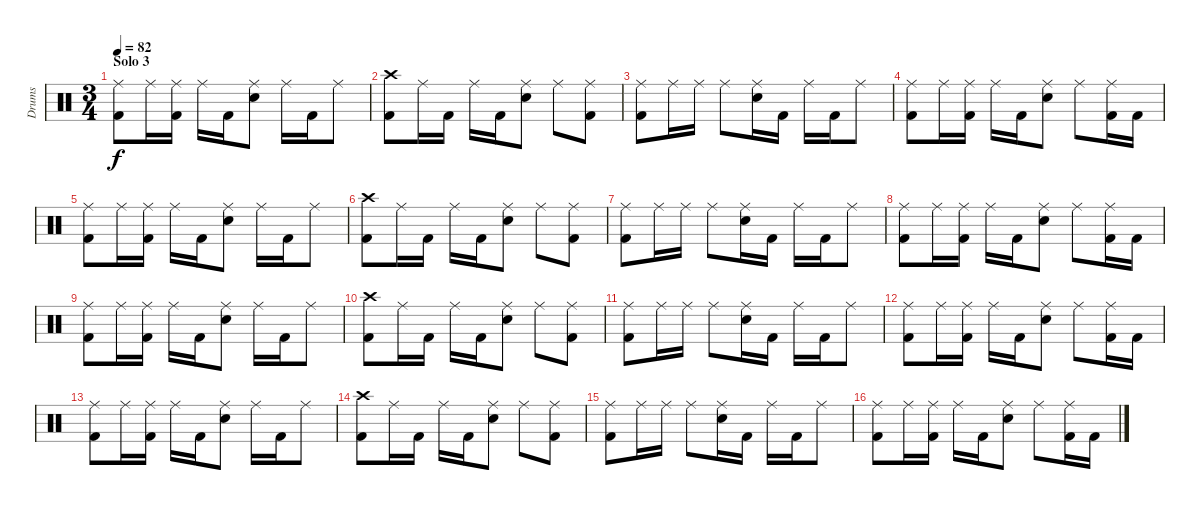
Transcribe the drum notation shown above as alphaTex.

\track ("Drums" "Drums") {instrument percussion}
\staff {score}
\articulation defaults
\ts (3 4)
\section ("" "Solo 3")
\tempo 82
\clef neutral
\ks c
("Ride (middle)" "Kick (hit) 2").8{dy f} "Ride (middle)".16 ("Ride (middle)" "Kick (hit) 2").16 "Ride (middle)".16 "Kick (hit) 2".16 ("Ride (middle)" "Electric Snare (hit)").8 "Ride (middle)".16 "Kick (hit) 2".16 "Ride (middle)".8 |
("Crash high (hit)" "Kick (hit) 2").8 "Ride (middle)".16 "Kick (hit) 2".16 "Ride (middle)".16 "Kick (hit) 2".16 ("Ride (middle)" "Electric Snare (hit)").8 "Ride (middle)".8 ("Ride (middle)" "Kick (hit) 2").8 |
("Ride (middle)" "Kick (hit) 2").8 "Ride (middle)".16 "Ride (middle)".16 "Ride (middle)".8 ("Ride (middle)" "Electric Snare (hit)").16 "Kick (hit) 2".16 "Ride (middle)".16 "Kick (hit) 2".16 "Ride (middle)".8 |
("Ride (middle)" "Kick (hit) 2").8 "Ride (middle)".16 ("Ride (middle)" "Kick (hit) 2").16 "Ride (middle)".16 "Kick (hit) 2".16 ("Ride (middle)" "Electric Snare (hit)").8 "Ride (middle)".8 ("Ride (middle)" "Kick (hit) 2").16 "Kick (hit) 2".16 |
("Ride (middle)" "Kick (hit) 2").8 "Ride (middle)".16 ("Ride (middle)" "Kick (hit) 2").16 "Ride (middle)".16 "Kick (hit) 2".16 ("Ride (middle)" "Electric Snare (hit)").8 "Ride (middle)".16 "Kick (hit) 2".16 "Ride (middle)".8 |
("Crash high (hit)" "Kick (hit) 2").8 "Ride (middle)".16 "Kick (hit) 2".16 "Ride (middle)".16 "Kick (hit) 2".16 ("Ride (middle)" "Electric Snare (hit)").8 "Ride (middle)".8 ("Ride (middle)" "Kick (hit) 2").8 |
("Ride (middle)" "Kick (hit) 2").8 "Ride (middle)".16 "Ride (middle)".16 "Ride (middle)".8 ("Ride (middle)" "Electric Snare (hit)").16 "Kick (hit) 2".16 "Ride (middle)".16 "Kick (hit) 2".16 "Ride (middle)".8 |
("Ride (middle)" "Kick (hit) 2").8 "Ride (middle)".16 ("Ride (middle)" "Kick (hit) 2").16 "Ride (middle)".16 "Kick (hit) 2".16 ("Ride (middle)" "Electric Snare (hit)").8 "Ride (middle)".8 ("Ride (middle)" "Kick (hit) 2").16 "Kick (hit) 2".16 |
("Ride (middle)" "Kick (hit) 2").8 "Ride (middle)".16 ("Ride (middle)" "Kick (hit) 2").16 "Ride (middle)".16 "Kick (hit) 2".16 ("Ride (middle)" "Electric Snare (hit)").8 "Ride (middle)".16 "Kick (hit) 2".16 "Ride (middle)".8 |
("Crash high (hit)" "Kick (hit) 2").8 "Ride (middle)".16 "Kick (hit) 2".16 "Ride (middle)".16 "Kick (hit) 2".16 ("Ride (middle)" "Electric Snare (hit)").8 "Ride (middle)".8 ("Ride (middle)" "Kick (hit) 2").8 |
("Ride (middle)" "Kick (hit) 2").8 "Ride (middle)".16 "Ride (middle)".16 "Ride (middle)".8 ("Ride (middle)" "Electric Snare (hit)").16 "Kick (hit) 2".16 "Ride (middle)".16 "Kick (hit) 2".16 "Ride (middle)".8 |
("Ride (middle)" "Kick (hit) 2").8 "Ride (middle)".16 ("Ride (middle)" "Kick (hit) 2").16 "Ride (middle)".16 "Kick (hit) 2".16 ("Ride (middle)" "Electric Snare (hit)").8 "Ride (middle)".8 ("Ride (middle)" "Kick (hit) 2").16 "Kick (hit) 2".16 |
("Ride (middle)" "Kick (hit) 2").8 "Ride (middle)".16 ("Ride (middle)" "Kick (hit) 2").16 "Ride (middle)".16 "Kick (hit) 2".16 ("Ride (middle)" "Electric Snare (hit)").8 "Ride (middle)".16 "Kick (hit) 2".16 "Ride (middle)".8 |
("Crash high (hit)" "Kick (hit) 2").8 "Ride (middle)".16 "Kick (hit) 2".16 "Ride (middle)".16 "Kick (hit) 2".16 ("Ride (middle)" "Electric Snare (hit)").8 "Ride (middle)".8 ("Ride (middle)" "Kick (hit) 2").8 |
("Ride (middle)" "Kick (hit) 2").8 "Ride (middle)".16 "Ride (middle)".16 "Ride (middle)".8 ("Ride (middle)" "Electric Snare (hit)").16 "Kick (hit) 2".16 "Ride (middle)".16 "Kick (hit) 2".16 "Ride (middle)".8 |
("Ride (middle)" "Kick (hit) 2").8 "Ride (middle)".16 ("Ride (middle)" "Kick (hit) 2").16 "Ride (middle)".16 "Kick (hit) 2".16 ("Ride (middle)" "Electric Snare (hit)").8 "Ride (middle)".8 ("Ride (middle)" "Kick (hit) 2").16 "Kick (hit) 2".16
